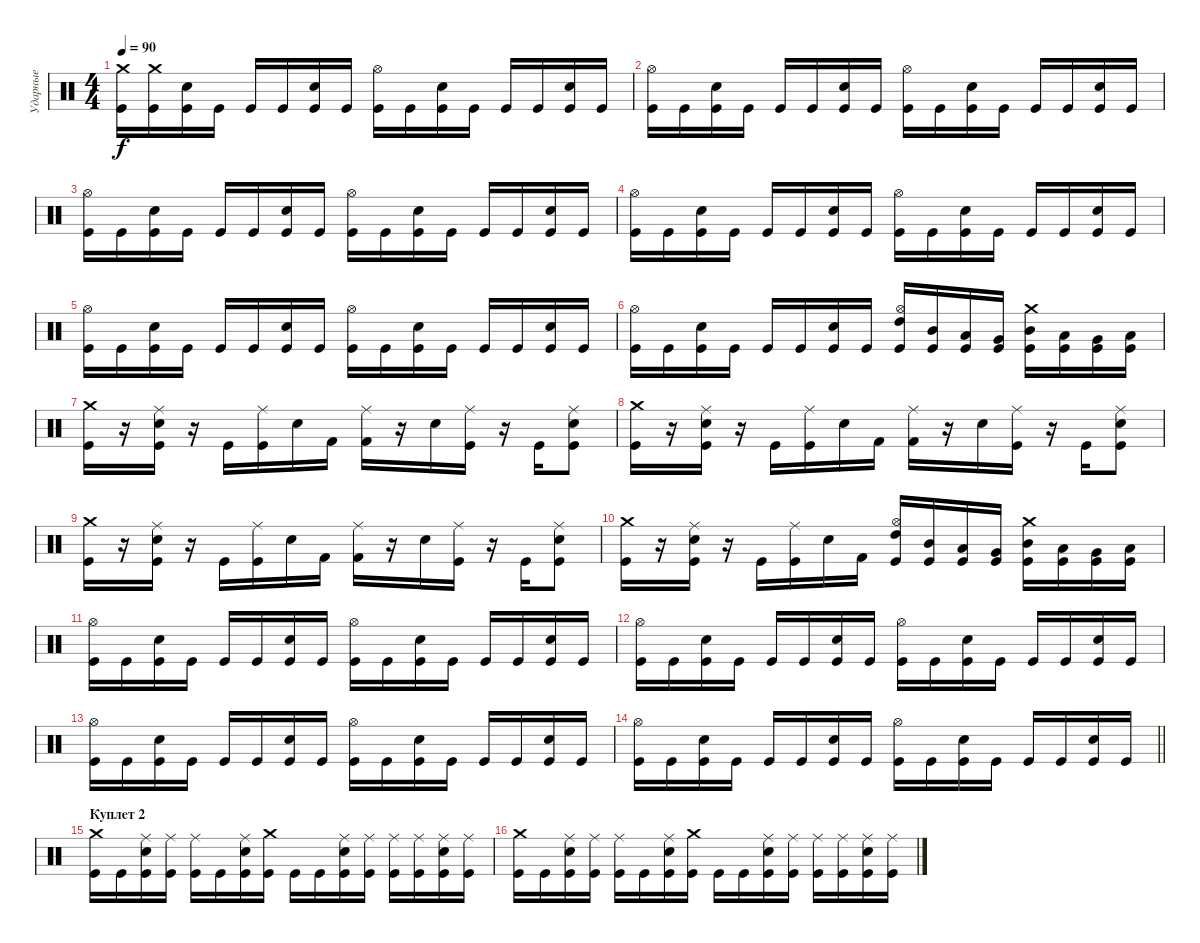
\track ("Ударные" "Ударные") {instrument percussion}
\staff {score}
\articulation defaults
\ts (4 4)
\tempo 90
\clef neutral
\ks c
("Crash medium (hit)" "Kick (hit)").16{dy f} ("Crash medium (hit)" "Kick (hit)").16 ("Kick (hit)" "Electric Snare (hit)").16 "Kick (hit)".16 "Kick (hit)".16 "Kick (hit)".16 ("Kick (hit)" "Electric Snare (hit)").16 "Kick (hit)".16 ("Kick (hit)" "Hi-Hat (open)").16 "Kick (hit)".16 ("Kick (hit)" "Electric Snare (hit)").16 "Kick (hit)".16 "Kick (hit)".16 "Kick (hit)".16 ("Kick (hit)" "Electric Snare (hit)").16 "Kick (hit)".16 |
("Kick (hit)" "Hi-Hat (open)").16 "Kick (hit)".16 ("Kick (hit)" "Electric Snare (hit)").16 "Kick (hit)".16 "Kick (hit)".16 "Kick (hit)".16 ("Kick (hit)" "Electric Snare (hit)").16 "Kick (hit)".16 ("Kick (hit)" "Hi-Hat (open)").16 "Kick (hit)".16 ("Kick (hit)" "Electric Snare (hit)").16 "Kick (hit)".16 "Kick (hit)".16 "Kick (hit)".16 ("Kick (hit)" "Electric Snare (hit)").16 "Kick (hit)".16 |
("Kick (hit)" "Hi-Hat (open)").16 "Kick (hit)".16 ("Kick (hit)" "Electric Snare (hit)").16 "Kick (hit)".16 "Kick (hit)".16 "Kick (hit)".16 ("Kick (hit)" "Electric Snare (hit)").16 "Kick (hit)".16 ("Kick (hit)" "Hi-Hat (open)").16 "Kick (hit)".16 ("Kick (hit)" "Electric Snare (hit)").16 "Kick (hit)".16 "Kick (hit)".16 "Kick (hit)".16 ("Kick (hit)" "Electric Snare (hit)").16 "Kick (hit)".16 |
("Kick (hit)" "Hi-Hat (open)").16 "Kick (hit)".16 ("Kick (hit)" "Electric Snare (hit)").16 "Kick (hit)".16 "Kick (hit)".16 "Kick (hit)".16 ("Kick (hit)" "Electric Snare (hit)").16 "Kick (hit)".16 ("Kick (hit)" "Hi-Hat (open)").16 "Kick (hit)".16 ("Kick (hit)" "Electric Snare (hit)").16 "Kick (hit)".16 "Kick (hit)".16 "Kick (hit)".16 ("Kick (hit)" "Electric Snare (hit)").16 "Kick (hit)".16 |
("Kick (hit)" "Hi-Hat (open)").16 "Kick (hit)".16 ("Kick (hit)" "Electric Snare (hit)").16 "Kick (hit)".16 "Kick (hit)".16 "Kick (hit)".16 ("Kick (hit)" "Electric Snare (hit)").16 "Kick (hit)".16 ("Kick (hit)" "Hi-Hat (open)").16 "Kick (hit)".16 ("Kick (hit)" "Electric Snare (hit)").16 "Kick (hit)".16 "Kick (hit)".16 "Kick (hit)".16 ("Kick (hit)" "Electric Snare (hit)").16 "Kick (hit)".16 |
("Kick (hit)" "Hi-Hat (open)").16 "Kick (hit)".16 ("Kick (hit)" "Electric Snare (hit)").16 "Kick (hit)".16 "Kick (hit)".16 "Kick (hit)".16 ("Kick (hit)" "Electric Snare (hit)").16 "Kick (hit)".16 ("Kick (hit)" "Hi-Hat (open)" "High Tom (hit)").16 ("Kick (hit)" "Mid Tom (hit)").16 ("Kick (hit)" "Low Tom (hit)").16 ("Kick (hit)" "Very Low Tom (hit)").16 ("Kick (hit)" "Mid Tom (hit)" "Crash medium (hit)").16 ("Kick (hit)" "Low Tom (hit)").16 ("Kick (hit)" "Very Low Tom (hit)").16 ("Kick (hit)" "Low Floor Tom (hit)").16 |
("Kick (hit)" "Crash medium (hit)").16 r.16 ("Kick (hit)" "Electric Snare (hit)" "Ride (middle)").16 r.16 "Kick (hit)".16 ("Kick (hit)" "Ride (middle)").16 "Electric Snare (hit)".16 "Kick (hit) 2".16 ("Kick (hit) 2" "Ride (middle)").16 r.16 "Electric Snare (hit)".16 ("Kick (hit)" "Ride (middle)").16 r.16 "Kick (hit)".16 ("Kick (hit)" "Ride (middle)" "Electric Snare (hit)").8 |
("Kick (hit)" "Crash medium (hit)").16 r.16 ("Kick (hit)" "Electric Snare (hit)" "Ride (middle)").16 r.16 "Kick (hit)".16 ("Kick (hit)" "Ride (middle)").16 "Electric Snare (hit)".16 "Kick (hit) 2".16 ("Kick (hit) 2" "Ride (middle)").16 r.16 "Electric Snare (hit)".16 ("Kick (hit)" "Ride (middle)").16 r.16 "Kick (hit)".16 ("Kick (hit)" "Ride (middle)" "Electric Snare (hit)").8 |
("Kick (hit)" "Crash medium (hit)").16 r.16 ("Kick (hit)" "Electric Snare (hit)" "Ride (middle)").16 r.16 "Kick (hit)".16 ("Kick (hit)" "Ride (middle)").16 "Electric Snare (hit)".16 "Kick (hit) 2".16 ("Kick (hit) 2" "Ride (middle)").16 r.16 "Electric Snare (hit)".16 ("Kick (hit)" "Ride (middle)").16 r.16 "Kick (hit)".16 ("Kick (hit)" "Ride (middle)" "Electric Snare (hit)").8 |
("Kick (hit)" "Crash medium (hit)").16 r.16 ("Kick (hit)" "Electric Snare (hit)" "Ride (middle)").16 r.16 "Kick (hit)".16 ("Kick (hit)" "Ride (middle)").16 "Electric Snare (hit)".16 "Kick (hit) 2".16 ("Kick (hit)" "Hi-Hat (open)" "High Tom (hit)").16 ("Kick (hit)" "Mid Tom (hit)").16 ("Kick (hit)" "Low Tom (hit)").16 ("Kick (hit)" "Very Low Tom (hit)").16 ("Kick (hit)" "Mid Tom (hit)" "Crash medium (hit)").16 ("Kick (hit)" "Low Tom (hit)").16 ("Kick (hit)" "Very Low Tom (hit)").16 ("Kick (hit)" "Low Floor Tom (hit)").16 |
("Kick (hit)" "Hi-Hat (open)").16 "Kick (hit)".16 ("Kick (hit)" "Electric Snare (hit)").16 "Kick (hit)".16 "Kick (hit)".16 "Kick (hit)".16 ("Kick (hit)" "Electric Snare (hit)").16 "Kick (hit)".16 ("Kick (hit)" "Hi-Hat (open)").16 "Kick (hit)".16 ("Kick (hit)" "Electric Snare (hit)").16 "Kick (hit)".16 "Kick (hit)".16 "Kick (hit)".16 ("Kick (hit)" "Electric Snare (hit)").16 "Kick (hit)".16 |
("Kick (hit)" "Hi-Hat (open)").16 "Kick (hit)".16 ("Kick (hit)" "Electric Snare (hit)").16 "Kick (hit)".16 "Kick (hit)".16 "Kick (hit)".16 ("Kick (hit)" "Electric Snare (hit)").16 "Kick (hit)".16 ("Kick (hit)" "Hi-Hat (open)").16 "Kick (hit)".16 ("Kick (hit)" "Electric Snare (hit)").16 "Kick (hit)".16 "Kick (hit)".16 "Kick (hit)".16 ("Kick (hit)" "Electric Snare (hit)").16 "Kick (hit)".16 |
("Kick (hit)" "Hi-Hat (open)").16 "Kick (hit)".16 ("Kick (hit)" "Electric Snare (hit)").16 "Kick (hit)".16 "Kick (hit)".16 "Kick (hit)".16 ("Kick (hit)" "Electric Snare (hit)").16 "Kick (hit)".16 ("Kick (hit)" "Hi-Hat (open)").16 "Kick (hit)".16 ("Kick (hit)" "Electric Snare (hit)").16 "Kick (hit)".16 "Kick (hit)".16 "Kick (hit)".16 ("Kick (hit)" "Electric Snare (hit)").16 "Kick (hit)".16 |
\barLineRight lightlight
("Kick (hit)" "Hi-Hat (open)").16 "Kick (hit)".16 ("Kick (hit)" "Electric Snare (hit)").16 "Kick (hit)".16 "Kick (hit)".16 "Kick (hit)".16 ("Kick (hit)" "Electric Snare (hit)").16 "Kick (hit)".16 ("Kick (hit)" "Hi-Hat (open)").16 "Kick (hit)".16 ("Kick (hit)" "Electric Snare (hit)").16 "Kick (hit)".16 "Kick (hit)".16 "Kick (hit)".16 ("Kick (hit)" "Electric Snare (hit)").16 "Kick (hit)".16 |
\section ("" "Куплет 2")
("Kick (hit)" "Crash medium (hit)").16 "Kick (hit)".16 ("Kick (hit)" "Electric Snare (hit)" "Ride (middle)").16 ("Kick (hit)" "Ride (middle)").16 ("Kick (hit)" "Ride (middle)").16 "Kick (hit)".16 ("Kick (hit)" "Ride (middle)" "Electric Snare (hit)").16 ("Kick (hit)" "Crash medium (hit)").16 "Kick (hit)".16 "Kick (hit)".16 ("Kick (hit)" "Ride (middle)" "Electric Snare (hit)").16 ("Kick (hit)" "Ride (middle)").16 ("Kick (hit)" "Ride (middle)").16 ("Kick (hit)" "Ride (middle)").16 ("Kick (hit)" "Ride (middle)" "Electric Snare (hit)").16 ("Kick (hit)" "Ride (middle)").16 |
("Kick (hit)" "Crash medium (hit)").16 "Kick (hit)".16 ("Kick (hit)" "Electric Snare (hit)" "Ride (middle)").16 ("Kick (hit)" "Ride (middle)").16 ("Kick (hit)" "Ride (middle)").16 "Kick (hit)".16 ("Kick (hit)" "Ride (middle)" "Electric Snare (hit)").16 ("Kick (hit)" "Crash medium (hit)").16 "Kick (hit)".16 "Kick (hit)".16 ("Kick (hit)" "Ride (middle)" "Electric Snare (hit)").16 ("Kick (hit)" "Ride (middle)").16 ("Kick (hit)" "Ride (middle)").16 ("Kick (hit)" "Ride (middle)").16 ("Kick (hit)" "Ride (middle)" "Electric Snare (hit)").16 ("Kick (hit)" "Ride (middle)").16
